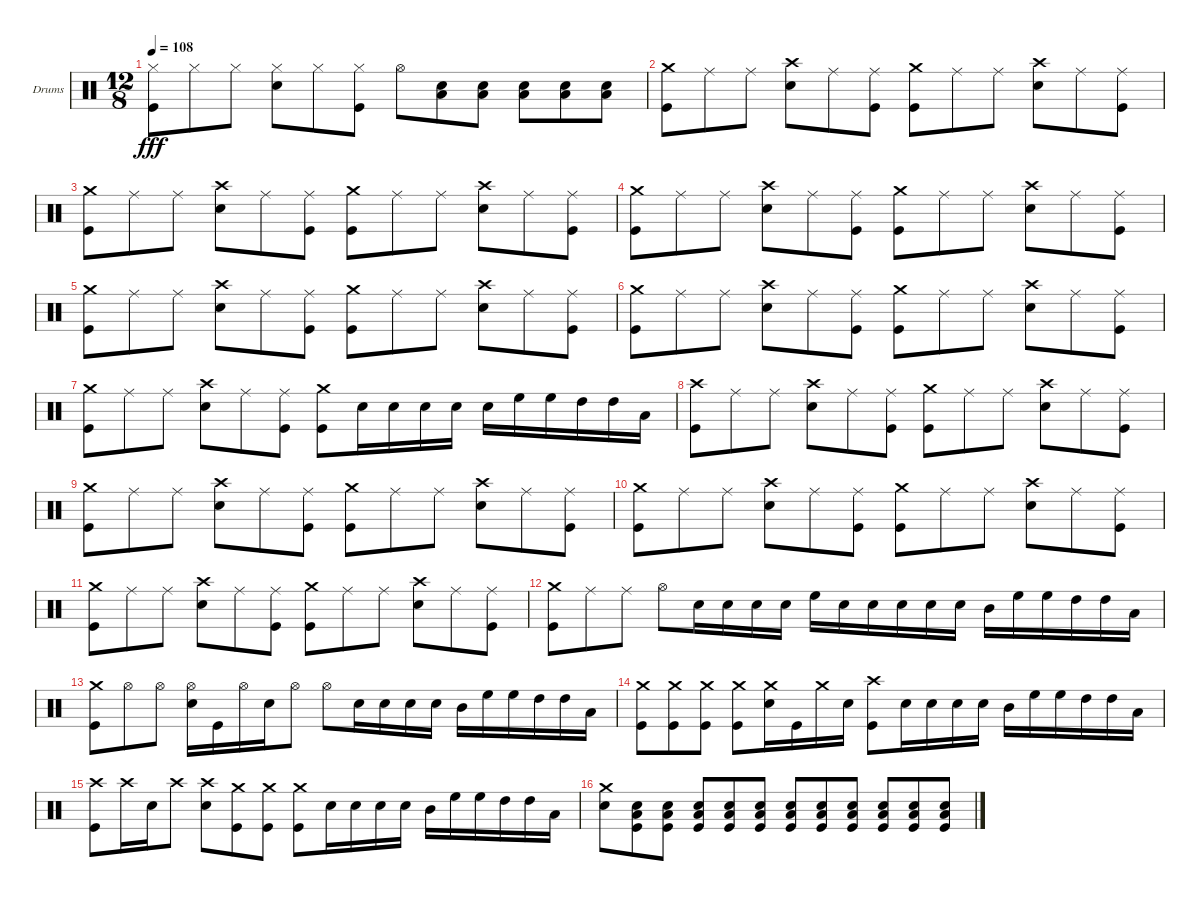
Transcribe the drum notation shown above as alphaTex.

\defaultSystemsLayout 4
\bracketExtendMode groupsimilarinstruments
\firstSystemTrackNameOrientation horizontal
\otherSystemsTrackNameOrientation horizontal
\track ("Drumkit" "Drums") {instrument percussion}
\staff {score}
\articulation defaults
\ts (12 8)
\tempo 108
\clef neutral
\scale
0.333333
\ks c
("Hi-Hat (closed)" "Kick (hit)").8{dy fff} "Hi-Hat (closed)".8 "Hi-Hat (closed)".8 ("Hi-Hat (closed)" "Snare (hit) 2").8 "Hi-Hat (closed)".8 ("Hi-Hat (closed)" "Kick (hit)").8 "Hi-Hat (open)".8 ("Snare (hit) 2" "Low Tom (hit)").8 ("Snare (hit) 2" "Low Tom (hit)").8 ("Snare (hit) 2" "Low Tom (hit)").8 ("Snare (hit) 2" "Low Tom (hit)").8 ("Snare (hit) 2" "Low Tom (hit)").8 |
\scale
0.333333 ("Crash medium (hit)" "Kick (hit)").8 "Ride (middle)".8 "Ride (middle)".8 ("Crash high (hit)" "Snare (hit) 2").8 "Ride (middle)".8 ("Ride (middle)" "Kick (hit)").8 ("Crash medium (hit)" "Kick (hit)").8 "Ride (middle)".8 "Ride (middle)".8 ("Crash high (hit)" "Snare (hit) 2").8 "Ride (middle)".8 ("Ride (middle)" "Kick (hit)").8 |
\scale
0.333333 ("Crash medium (hit)" "Kick (hit)").8 "Ride (middle)".8 "Ride (middle)".8 ("Crash high (hit)" "Snare (hit) 2").8 "Ride (middle)".8 ("Ride (middle)" "Kick (hit)").8 ("Crash medium (hit)" "Kick (hit)").8 "Ride (middle)".8 "Ride (middle)".8 ("Crash high (hit)" "Snare (hit) 2").8 "Ride (middle)".8 ("Ride (middle)" "Kick (hit)").8 |
\scale
0.333333 ("Crash medium (hit)" "Kick (hit)").8 "Ride (middle)".8 "Ride (middle)".8 ("Crash high (hit)" "Snare (hit) 2").8 "Ride (middle)".8 ("Ride (middle)" "Kick (hit)").8 ("Crash medium (hit)" "Kick (hit)").8 "Ride (middle)".8 "Ride (middle)".8 ("Crash high (hit)" "Snare (hit) 2").8 "Ride (middle)".8 ("Ride (middle)" "Kick (hit)").8 |
\scale
0.333333 ("Crash medium (hit)" "Kick (hit)").8 "Ride (middle)".8 "Ride (middle)".8 ("Crash high (hit)" "Snare (hit) 2").8 "Ride (middle)".8 ("Ride (middle)" "Kick (hit)").8 ("Crash medium (hit)" "Kick (hit)").8 "Ride (middle)".8 "Ride (middle)".8 ("Crash high (hit)" "Snare (hit) 2").8 "Ride (middle)".8 ("Ride (middle)" "Kick (hit)").8 |
\scale
0.333333 ("Crash medium (hit)" "Kick (hit)").8 "Ride (middle)".8 "Ride (middle)".8 ("Crash high (hit)" "Snare (hit) 2").8 "Ride (middle)".8 ("Ride (middle)" "Kick (hit)").8 ("Crash medium (hit)" "Kick (hit)").8 "Ride (middle)".8 "Ride (middle)".8 ("Crash high (hit)" "Snare (hit) 2").8 "Ride (middle)".8 ("Ride (middle)" "Kick (hit)").8 |
\scale
0.333333 ("Crash medium (hit)" "Kick (hit)").8 "Ride (middle)".8 "Ride (middle)".8 ("Crash high (hit)" "Snare (hit) 2").8 "Ride (middle)".8 ("Ride (middle)" "Kick (hit)").8 ("Crash medium (hit)" "Kick (hit)").8 "Snare (hit) 2".16 "Snare (hit) 2".16 "Snare (hit) 2".16 "Snare (hit) 2".16 "Snare (hit) 2".16 "High Floor Tom (hit)".16 "High Floor Tom (hit)".16 "High Tom (hit)".16 "High Tom (hit)".16 "Low Tom (hit)".16 |
\scale
0.333333 ("Crash high (hit)" "Kick (hit)").8 "Ride (middle)".8 "Ride (middle)".8 ("Crash high (hit)" "Snare (hit) 2").8 "Ride (middle)".8 ("Ride (middle)" "Kick (hit)").8 ("Crash medium (hit)" "Kick (hit)").8 "Ride (middle)".8 "Ride (middle)".8 ("Crash high (hit)" "Snare (hit) 2").8 "Ride (middle)".8 ("Ride (middle)" "Kick (hit)").8 |
\scale
0.333333 ("Crash medium (hit)" "Kick (hit)").8 "Ride (middle)".8 "Ride (middle)".8 ("Crash high (hit)" "Snare (hit) 2").8 "Ride (middle)".8 ("Ride (middle)" "Kick (hit)").8 ("Crash medium (hit)" "Kick (hit)").8 "Ride (middle)".8 "Ride (middle)".8 ("Crash high (hit)" "Snare (hit) 2").8 "Ride (middle)".8 ("Ride (middle)" "Kick (hit)").8 |
\scale
0.333333 ("Crash medium (hit)" "Kick (hit)").8 "Ride (middle)".8 "Ride (middle)".8 ("Crash high (hit)" "Snare (hit) 2").8 "Ride (middle)".8 ("Ride (middle)" "Kick (hit)").8 ("Crash medium (hit)" "Kick (hit)").8 "Ride (middle)".8 "Ride (middle)".8 ("Crash high (hit)" "Snare (hit) 2").8 "Ride (middle)".8 ("Ride (middle)" "Kick (hit)").8 |
\scale
0.333333 ("Crash medium (hit)" "Kick (hit)").8 "Ride (middle)".8 "Ride (middle)".8 ("Crash high (hit)" "Snare (hit) 2").8 "Ride (middle)".8 ("Ride (middle)" "Kick (hit)").8 ("Crash medium (hit)" "Kick (hit)").8 "Ride (middle)".8 "Ride (middle)".8 ("Crash high (hit)" "Snare (hit) 2").8 "Ride (middle)".8 ("Ride (middle)" "Kick (hit)").8 |
\scale
0.333333 ("Crash medium (hit)" "Kick (hit)").8 "Ride (middle)".8 "Ride (middle)".8 "Hi-Hat (open)".8 "Snare (hit) 2".16 "Snare (hit) 2".16 "Snare (hit) 2".16 "Snare (hit) 2".16 "High Floor Tom (hit)".16 "Snare (hit) 2".16 "Snare (hit) 2".16 "Snare (hit) 2".16 "Snare (hit) 2".16 "Snare (hit) 2".16 "Mid Tom (hit)".16 "High Floor Tom (hit)".16 "High Floor Tom (hit)".16 "High Tom (hit)".16 "High Tom (hit)".16 "Low Tom (hit)".16 |
\scale
0.333333 ("Crash medium (hit)" "Kick (hit)").8 "Hi-Hat (open)".8 "Hi-Hat (open)".8 ("Hi-Hat (open)" "Snare (hit) 2").16 "Kick (hit)".16 "Hi-Hat (open)".16 "Snare (hit) 2".16 "Hi-Hat (open)".8 "Hi-Hat (open)".8 "Snare (hit) 2".16 "Snare (hit) 2".16 "Snare (hit) 2".16 "Snare (hit) 2".16 "Mid Tom (hit)".16 "High Floor Tom (hit)".16 "High Floor Tom (hit)".16 "High Tom (hit)".16 "High Tom (hit)".16 "Low Tom (hit)".16 |
\scale
0.333333 ("Crash medium (hit)" "Kick (hit)").8 ("Crash medium (hit)" "Kick (hit)").8 ("Crash medium (hit)" "Kick (hit)").8 ("Crash medium (hit)" "Kick (hit)").8 ("Crash medium (hit)" "Snare (hit) 2").16 "Kick (hit)".16 "Crash medium (hit)".16 "Snare (hit) 2".16 ("Crash high (hit)" "Kick (hit)").8 "Snare (hit) 2".16 "Snare (hit) 2".16 "Snare (hit) 2".16 "Snare (hit) 2".16 "Mid Tom (hit)".16 "High Floor Tom (hit)".16 "High Floor Tom (hit)".16 "High Tom (hit)".16 "High Tom (hit)".16 "Low Tom (hit)".16 |
\scale
0.333333 ("Crash high (hit)" "Kick (hit)").8 "Crash high (hit)".16 "Snare (hit) 2".16 "Crash high (hit)".8 ("Crash high (hit)" "Snare (hit) 2").8 ("Crash medium (hit)" "Kick (hit)").8 ("Crash medium (hit)" "Kick (hit)").8 ("Crash medium (hit)" "Kick (hit)").8 "Snare (hit) 2".16 "Snare (hit) 2".16 "Snare (hit) 2".16 "Snare (hit) 2".16 "Mid Tom (hit)".16 "High Floor Tom (hit)".16 "High Floor Tom (hit)".16 "High Tom (hit)".16 "High Tom (hit)".16 "Low Tom (hit)".16 |
\scale
0.333333 ("Crash medium (hit)" "Snare (hit) 2").8 ("Snare (hit) 2" "Low Tom (hit)" "Kick (hit)").8 ("Snare (hit) 2" "Low Tom (hit)" "Kick (hit)").8 ("Snare (hit) 2" "Low Tom (hit)" "Kick (hit)").8 ("Snare (hit) 2" "Low Tom (hit)" "Kick (hit)").8 ("Snare (hit) 2" "Low Tom (hit)" "Kick (hit)").8 ("Snare (hit) 2" "Low Tom (hit)" "Kick (hit)").8 ("Snare (hit) 2" "Low Tom (hit)" "Kick (hit)").8 ("Snare (hit) 2" "Low Tom (hit)" "Kick (hit)").8 ("Snare (hit) 2" "Low Tom (hit)" "Kick (hit)").8 ("Snare (hit) 2" "Low Tom (hit)" "Kick (hit)").8 ("Snare (hit) 2" "Low Tom (hit)" "Kick (hit)").8
